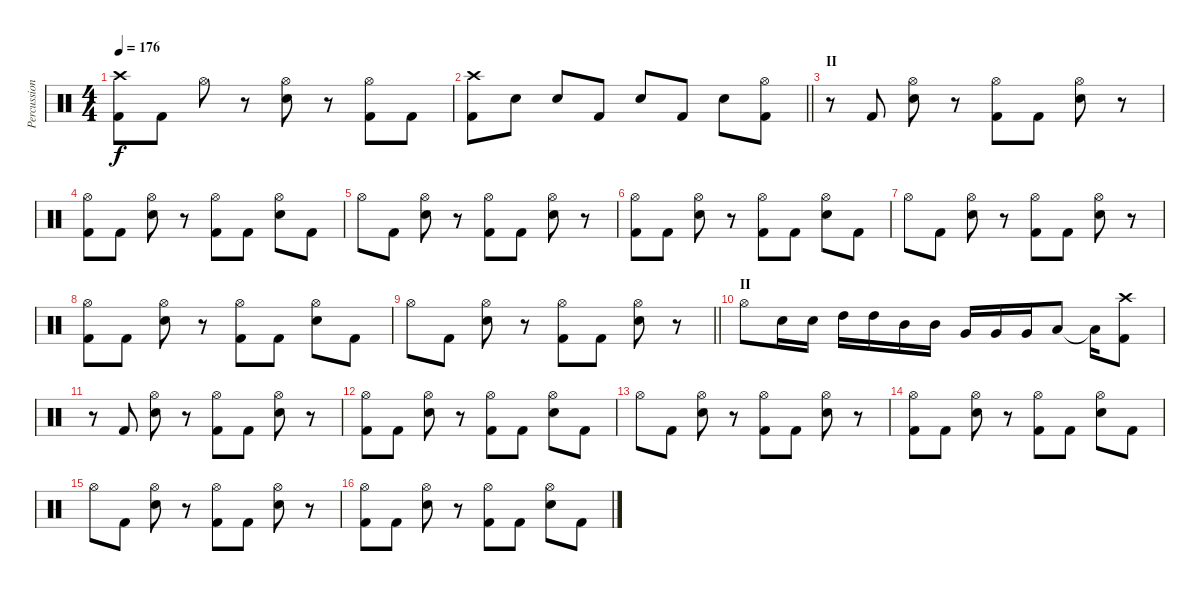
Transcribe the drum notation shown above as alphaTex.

\track ("Percussion" "Percussion") {instrument percussion}
\staff {score}
\articulation defaults
\ts (4 4)
\tempo 176
\clef neutral
\ks c
("Crash high (hit)" "Kick (hit) 2").8{dy f} "Kick (hit) 2".8 "Hi-Hat (open)".8 r.8 ("Hi-Hat (open)" "Electric Snare (hit)").8 r.8 ("Hi-Hat (open)" "Kick (hit) 2").8 "Kick (hit) 2".8 |
\barLineRight lightlight
("Crash high (hit)" "Kick (hit) 2").8 "Electric Snare (hit)".8 "Electric Snare (hit)".8 "Kick (hit) 2".8 "Electric Snare (hit)".8 "Kick (hit) 2".8 "Electric Snare (hit)".8 ("Hi-Hat (open)" "Kick (hit) 2").8 |
\section ("" "II")
r.8 "Kick (hit) 2".8 ("Hi-Hat (open)" "Electric Snare (hit)").8 r.8 ("Hi-Hat (open)" "Kick (hit) 2").8 "Kick (hit) 2".8 ("Hi-Hat (open)" "Electric Snare (hit)").8 r.8 |
("Hi-Hat (open)" "Kick (hit) 2").8 "Kick (hit) 2".8 ("Hi-Hat (open)" "Electric Snare (hit)").8 r.8 ("Hi-Hat (open)" "Kick (hit) 2").8 "Kick (hit) 2".8 ("Hi-Hat (open)" "Electric Snare (hit)").8 "Kick (hit) 2".8 |
"Hi-Hat (open)".8 "Kick (hit) 2".8 ("Hi-Hat (open)" "Electric Snare (hit)").8 r.8 ("Hi-Hat (open)" "Kick (hit) 2").8 "Kick (hit) 2".8 ("Hi-Hat (open)" "Electric Snare (hit)").8 r.8 |
("Hi-Hat (open)" "Kick (hit) 2").8 "Kick (hit) 2".8 ("Hi-Hat (open)" "Electric Snare (hit)").8 r.8 ("Hi-Hat (open)" "Kick (hit) 2").8 "Kick (hit) 2".8 ("Hi-Hat (open)" "Electric Snare (hit)").8 "Kick (hit) 2".8 |
"Hi-Hat (open)".8 "Kick (hit) 2".8 ("Hi-Hat (open)" "Electric Snare (hit)").8 r.8 ("Hi-Hat (open)" "Kick (hit) 2").8 "Kick (hit) 2".8 ("Hi-Hat (open)" "Electric Snare (hit)").8 r.8 |
("Hi-Hat (open)" "Kick (hit) 2").8 "Kick (hit) 2".8 ("Hi-Hat (open)" "Electric Snare (hit)").8 r.8 ("Hi-Hat (open)" "Kick (hit) 2").8 "Kick (hit) 2".8 ("Hi-Hat (open)" "Electric Snare (hit)").8 "Kick (hit) 2".8 |
\barLineRight lightlight "Hi-Hat (open)".8 "Kick (hit) 2".8
("Hi-Hat (open)" "Electric Snare (hit)").8 r.8 ("Hi-Hat (open)" "Kick (hit) 2").8 "Kick (hit) 2".8 ("Hi-Hat (open)" "Electric Snare (hit)").8 r.8 |
\section ("" "II")
"Hi-Hat (open)".8 "Electric Snare (hit)".16 "Electric Snare (hit)".16 "High Tom (hit)".16 "High Tom (hit)".16 "Mid Tom (hit)".16 "Mid Tom (hit)".16 "Very Low Tom (hit)".16 "Very Low Tom (hit)".16 "Very Low Tom (hit)".16 "Low Floor Tom (hit)".8 "Low Floor Tom (hit)"{t}.16 ("Crash high (hit)" "Kick (hit) 2").8 |
r.8 "Kick (hit) 2".8 ("Hi-Hat (open)" "Electric Snare (hit)").8 r.8 ("Hi-Hat (open)" "Kick (hit) 2").8 "Kick (hit) 2".8 ("Hi-Hat (open)" "Electric Snare (hit)").8 r.8 |
("Hi-Hat (open)" "Kick (hit) 2").8 "Kick (hit) 2".8 ("Hi-Hat (open)" "Electric Snare (hit)").8 r.8 ("Hi-Hat (open)" "Kick (hit) 2").8 "Kick (hit) 2".8 ("Hi-Hat (open)" "Electric Snare (hit)").8 "Kick (hit) 2".8 |
"Hi-Hat (open)".8 "Kick (hit) 2".8 ("Hi-Hat (open)" "Electric Snare (hit)").8 r.8 ("Hi-Hat (open)" "Kick (hit) 2").8 "Kick (hit) 2".8 ("Hi-Hat (open)" "Electric Snare (hit)").8 r.8 |
("Hi-Hat (open)" "Kick (hit) 2").8 "Kick (hit) 2".8 ("Hi-Hat (open)" "Electric Snare (hit)").8 r.8 ("Hi-Hat (open)" "Kick (hit) 2").8 "Kick (hit) 2".8 ("Hi-Hat (open)" "Electric Snare (hit)").8 "Kick (hit) 2".8 |
"Hi-Hat (open)".8 "Kick (hit) 2".8 ("Hi-Hat (open)" "Electric Snare (hit)").8 r.8 ("Hi-Hat (open)" "Kick (hit) 2").8 "Kick (hit) 2".8 ("Hi-Hat (open)" "Electric Snare (hit)").8 r.8 |
("Hi-Hat (open)" "Kick (hit) 2").8 "Kick (hit) 2".8 ("Hi-Hat (open)" "Electric Snare (hit)").8 r.8 ("Hi-Hat (open)" "Kick (hit) 2").8 "Kick (hit) 2".8 ("Hi-Hat (open)" "Electric Snare (hit)").8 "Kick (hit) 2".8
